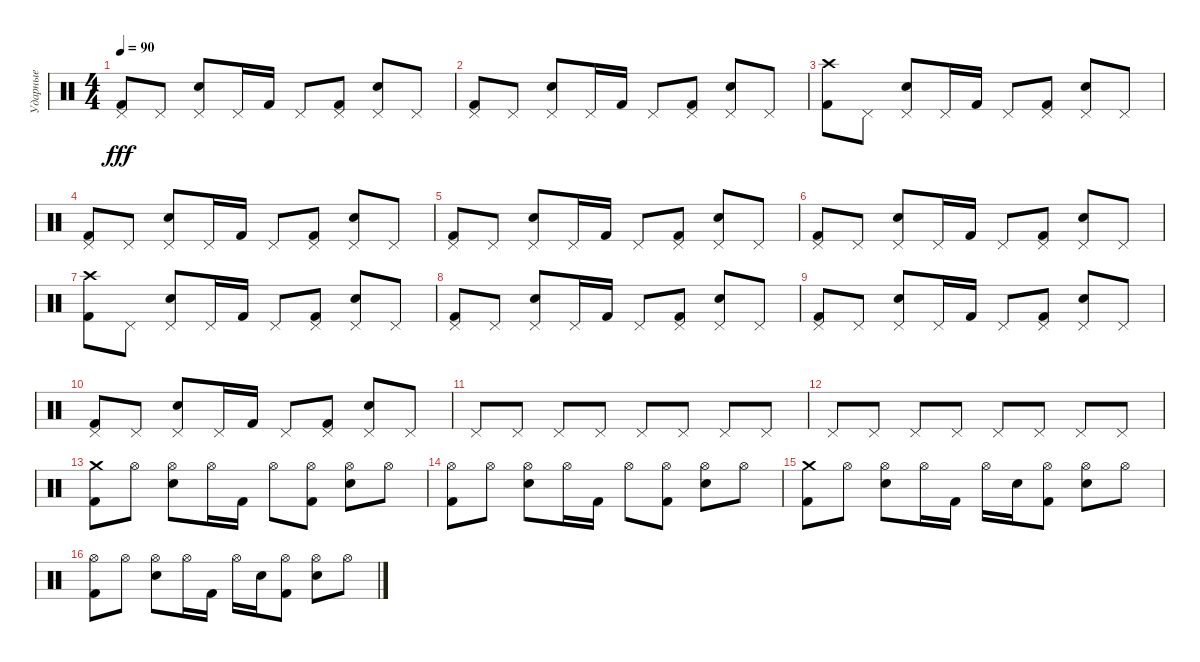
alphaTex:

\track ("Ударные" "Ударные") {instrument percussion}
\staff {score}
\articulation defaults
\ts (4 4)
\tempo 90
\clef neutral
\ks c
("Pedal Hi-Hat (hit)" "Kick (hit) 2").8{dy fff} "Pedal Hi-Hat (hit)".8 ("Pedal Hi-Hat (hit)" "Snare (hit) 2").8 "Pedal Hi-Hat (hit)".16 "Kick (hit) 2".16 "Pedal Hi-Hat (hit)".8 ("Pedal Hi-Hat (hit)" "Kick (hit) 2").8 ("Pedal Hi-Hat (hit)" "Snare (hit) 2").8 "Pedal Hi-Hat (hit)".8 |
("Pedal Hi-Hat (hit)" "Kick (hit) 2").8 "Pedal Hi-Hat (hit)".8 ("Pedal Hi-Hat (hit)" "Snare (hit) 2").8 "Pedal Hi-Hat (hit)".16 "Kick (hit) 2".16 "Pedal Hi-Hat (hit)".8 ("Pedal Hi-Hat (hit)" "Kick (hit) 2").8 ("Pedal Hi-Hat (hit)" "Snare (hit) 2").8 "Pedal Hi-Hat (hit)".8 |
("Crash high (hit)" "Kick (hit) 2").8 "Pedal Hi-Hat (hit)".8 ("Pedal Hi-Hat (hit)" "Snare (hit) 2").8 "Pedal Hi-Hat (hit)".16 "Kick (hit) 2".16 "Pedal Hi-Hat (hit)".8 ("Pedal Hi-Hat (hit)" "Kick (hit) 2").8 ("Pedal Hi-Hat (hit)" "Snare (hit) 2").8 "Pedal Hi-Hat (hit)".8 |
("Pedal Hi-Hat (hit)" "Kick (hit) 2").8 "Pedal Hi-Hat (hit)".8 ("Pedal Hi-Hat (hit)" "Snare (hit) 2").8 "Pedal Hi-Hat (hit)".16 "Kick (hit) 2".16 "Pedal Hi-Hat (hit)".8 ("Pedal Hi-Hat (hit)" "Kick (hit) 2").8 ("Pedal Hi-Hat (hit)" "Snare (hit) 2").8 "Pedal Hi-Hat (hit)".8 |
("Pedal Hi-Hat (hit)" "Kick (hit) 2").8 "Pedal Hi-Hat (hit)".8 ("Pedal Hi-Hat (hit)" "Snare (hit) 2").8 "Pedal Hi-Hat (hit)".16 "Kick (hit) 2".16 "Pedal Hi-Hat (hit)".8 ("Pedal Hi-Hat (hit)" "Kick (hit) 2").8 ("Pedal Hi-Hat (hit)" "Snare (hit) 2").8 "Pedal Hi-Hat (hit)".8 |
("Pedal Hi-Hat (hit)" "Kick (hit) 2").8 "Pedal Hi-Hat (hit)".8 ("Pedal Hi-Hat (hit)" "Snare (hit) 2").8 "Pedal Hi-Hat (hit)".16 "Kick (hit) 2".16 "Pedal Hi-Hat (hit)".8 ("Pedal Hi-Hat (hit)" "Kick (hit) 2").8 ("Pedal Hi-Hat (hit)" "Snare (hit) 2").8 "Pedal Hi-Hat (hit)".8 |
("Crash high (hit)" "Kick (hit) 2").8 "Pedal Hi-Hat (hit)".8 ("Pedal Hi-Hat (hit)" "Snare (hit) 2").8 "Pedal Hi-Hat (hit)".16 "Kick (hit) 2".16 "Pedal Hi-Hat (hit)".8 ("Pedal Hi-Hat (hit)" "Kick (hit) 2").8 ("Pedal Hi-Hat (hit)" "Snare (hit) 2").8 "Pedal Hi-Hat (hit)".8 |
("Pedal Hi-Hat (hit)" "Kick (hit) 2").8 "Pedal Hi-Hat (hit)".8 ("Pedal Hi-Hat (hit)" "Snare (hit) 2").8 "Pedal Hi-Hat (hit)".16 "Kick (hit) 2".16 "Pedal Hi-Hat (hit)".8 ("Pedal Hi-Hat (hit)" "Kick (hit) 2").8 ("Pedal Hi-Hat (hit)" "Snare (hit) 2").8 "Pedal Hi-Hat (hit)".8 |
("Pedal Hi-Hat (hit)" "Kick (hit) 2").8 "Pedal Hi-Hat (hit)".8 ("Pedal Hi-Hat (hit)" "Snare (hit) 2").8 "Pedal Hi-Hat (hit)".16 "Kick (hit) 2".16 "Pedal Hi-Hat (hit)".8 ("Pedal Hi-Hat (hit)" "Kick (hit) 2").8 ("Pedal Hi-Hat (hit)" "Snare (hit) 2").8 "Pedal Hi-Hat (hit)".8 |
("Pedal Hi-Hat (hit)" "Kick (hit) 2").8 "Pedal Hi-Hat (hit)".8 ("Pedal Hi-Hat (hit)" "Snare (hit) 2").8 "Pedal Hi-Hat (hit)".16 "Kick (hit) 2".16 "Pedal Hi-Hat (hit)".8 ("Pedal Hi-Hat (hit)" "Kick (hit) 2").8 ("Pedal Hi-Hat (hit)" "Snare (hit) 2").8 "Pedal Hi-Hat (hit)".8 |
"Pedal Hi-Hat (hit)".8 "Pedal Hi-Hat (hit)".8 "Pedal Hi-Hat (hit)".8 "Pedal Hi-Hat (hit)".8 "Pedal Hi-Hat (hit)".8 "Pedal Hi-Hat (hit)".8 "Pedal Hi-Hat (hit)".8 "Pedal Hi-Hat (hit)".8 |
"Pedal Hi-Hat (hit)".8 "Pedal Hi-Hat (hit)".8 "Pedal Hi-Hat (hit)".8 "Pedal Hi-Hat (hit)".8 "Pedal Hi-Hat (hit)".8 "Pedal Hi-Hat (hit)".8 "Pedal Hi-Hat (hit)".8 "Pedal Hi-Hat (hit)".8 |
("Crash medium (hit)" "Kick (hit) 2").8 "Hi-Hat (open)".8 ("Hi-Hat (open)" "Snare (hit) 2").8 "Hi-Hat (open)".16 "Kick (hit) 2".16 "Hi-Hat (open)".8 ("Hi-Hat (open)" "Kick (hit) 2").8 ("Hi-Hat (open)" "Snare (hit) 2").8 "Hi-Hat (open)".8 |
("Hi-Hat (open)" "Kick (hit) 2").8 "Hi-Hat (open)".8 ("Hi-Hat (open)" "Snare (hit) 2").8 "Hi-Hat (open)".16 "Kick (hit) 2".16 "Hi-Hat (open)".8 ("Hi-Hat (open)" "Kick (hit) 2").8 ("Hi-Hat (open)" "Snare (hit) 2").8 "Hi-Hat (open)".8 |
("Crash medium (hit)" "Kick (hit) 2").8 "Hi-Hat (open)".8 ("Hi-Hat (open)" "Snare (hit) 2").8 "Hi-Hat (open)".16 "Kick (hit) 2".16 "Hi-Hat (open)".16 "Snare (hit) 2".16 ("Hi-Hat (open)" "Kick (hit) 2").8 ("Hi-Hat (open)" "Snare (hit) 2").8 "Hi-Hat (open)".8 |
("Hi-Hat (open)" "Kick (hit) 2").8 "Hi-Hat (open)".8 ("Hi-Hat (open)" "Snare (hit) 2").8 "Hi-Hat (open)".16 "Kick (hit) 2".16 "Hi-Hat (open)".16 "Snare (hit) 2".16 ("Hi-Hat (open)" "Kick (hit) 2").8 ("Hi-Hat (open)" "Snare (hit) 2").8 "Hi-Hat (open)".8
